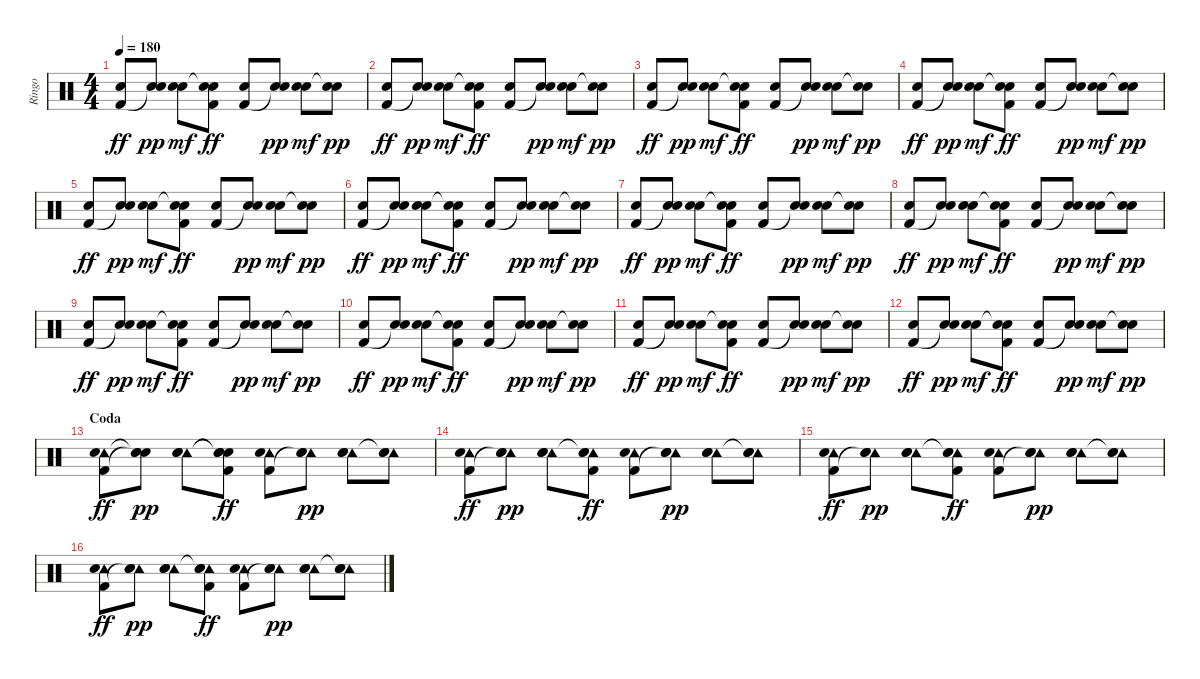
\track ("Ringo" "Ringo") {instrument percussion}
\staff {score}
\articulation defaults
\ts (4 4)
\tempo 180
\clef neutral
\ks c
("Hand Clap (hit)" "Kick (hit) 2").8{dy ff} ("Hand Clap (hit)" "Snare (hit)"{t}).8{dy pp} ("Hand Clap (hit)" "Snare (hit) 2").8{dy mf} ("Hand Clap (hit)" "Snare (hit)"{t} "Kick (hit) 2").8{dy ff} ("Hand Clap (hit)" "Kick (hit) 2").8 ("Hand Clap (hit)" "Snare (hit)"{t}).8{dy pp} ("Hand Clap (hit)" "Snare (hit) 2").8{dy mf} ("Hand Clap (hit)" "Snare (hit)"{t}).8{dy pp} |
("Hand Clap (hit)" "Kick (hit) 2").8{dy ff} ("Hand Clap (hit)" "Snare (hit)"{t}).8{dy pp} ("Hand Clap (hit)" "Snare (hit) 2").8{dy mf} ("Hand Clap (hit)" "Snare (hit)"{t} "Kick (hit) 2").8{dy ff} ("Hand Clap (hit)" "Kick (hit) 2").8 ("Hand Clap (hit)" "Snare (hit)"{t}).8{dy pp} ("Hand Clap (hit)" "Snare (hit) 2").8{dy mf} ("Hand Clap (hit)" "Snare (hit)"{t}).8{dy pp} |
("Hand Clap (hit)" "Kick (hit) 2").8{dy ff} ("Hand Clap (hit)" "Snare (hit)"{t}).8{dy pp} ("Hand Clap (hit)" "Snare (hit) 2").8{dy mf} ("Hand Clap (hit)" "Snare (hit)"{t} "Kick (hit) 2").8{dy ff} ("Hand Clap (hit)" "Kick (hit) 2").8 ("Hand Clap (hit)" "Snare (hit)"{t}).8{dy pp} ("Hand Clap (hit)" "Snare (hit) 2").8{dy mf} ("Hand Clap (hit)" "Snare (hit)"{t}).8{dy pp} |
("Hand Clap (hit)" "Kick (hit) 2").8{dy ff} ("Hand Clap (hit)" "Snare (hit)"{t}).8{dy pp} ("Hand Clap (hit)" "Snare (hit) 2").8{dy mf} ("Hand Clap (hit)" "Snare (hit)"{t} "Kick (hit) 2").8{dy ff} ("Hand Clap (hit)" "Kick (hit) 2").8 ("Hand Clap (hit)" "Snare (hit)"{t}).8{dy pp} ("Hand Clap (hit)" "Snare (hit) 2").8{dy mf} ("Hand Clap (hit)" "Snare (hit)"{t}).8{dy pp} |
("Hand Clap (hit)" "Kick (hit) 2").8{dy ff} ("Hand Clap (hit)" "Snare (hit)"{t}).8{dy pp} ("Hand Clap (hit)" "Snare (hit) 2").8{dy mf} ("Hand Clap (hit)" "Snare (hit)"{t} "Kick (hit) 2").8{dy ff} ("Hand Clap (hit)" "Kick (hit) 2").8 ("Hand Clap (hit)" "Snare (hit)"{t}).8{dy pp} ("Hand Clap (hit)" "Snare (hit) 2").8{dy mf} ("Hand Clap (hit)" "Snare (hit)"{t}).8{dy pp} |
("Hand Clap (hit)" "Kick (hit) 2").8{dy ff} ("Hand Clap (hit)" "Snare (hit)"{t}).8{dy pp} ("Hand Clap (hit)" "Snare (hit) 2").8{dy mf} ("Hand Clap (hit)" "Snare (hit)"{t} "Kick (hit) 2").8{dy ff} ("Hand Clap (hit)" "Kick (hit) 2").8 ("Hand Clap (hit)" "Snare (hit)"{t}).8{dy pp} ("Hand Clap (hit)" "Snare (hit) 2").8{dy mf} ("Hand Clap (hit)" "Snare (hit)"{t}).8{dy pp} |
("Hand Clap (hit)" "Kick (hit) 2").8{dy ff} ("Hand Clap (hit)" "Snare (hit)"{t}).8{dy pp} ("Hand Clap (hit)" "Snare (hit) 2").8{dy mf} ("Hand Clap (hit)" "Snare (hit)"{t} "Kick (hit) 2").8{dy ff} ("Hand Clap (hit)" "Kick (hit) 2").8 ("Hand Clap (hit)" "Snare (hit)"{t}).8{dy pp} ("Hand Clap (hit)" "Snare (hit) 2").8{dy mf} ("Hand Clap (hit)" "Snare (hit)"{t}).8{dy pp} |
("Hand Clap (hit)" "Kick (hit) 2").8{dy ff} ("Hand Clap (hit)" "Snare (hit)"{t}).8{dy pp} ("Hand Clap (hit)" "Snare (hit) 2").8{dy mf} ("Hand Clap (hit)" "Snare (hit)"{t} "Kick (hit) 2").8{dy ff} ("Hand Clap (hit)" "Kick (hit) 2").8 ("Hand Clap (hit)" "Snare (hit)"{t}).8{dy pp} ("Hand Clap (hit)" "Snare (hit) 2").8{dy mf} ("Hand Clap (hit)" "Snare (hit)"{t}).8{dy pp} |
("Hand Clap (hit)" "Kick (hit) 2").8{dy ff} ("Hand Clap (hit)" "Snare (hit)"{t}).8{dy pp} ("Hand Clap (hit)" "Snare (hit) 2").8{dy mf} ("Hand Clap (hit)" "Snare (hit)"{t} "Kick (hit) 2").8{dy ff} ("Hand Clap (hit)" "Kick (hit) 2").8 ("Hand Clap (hit)" "Snare (hit)"{t}).8{dy pp} ("Hand Clap (hit)" "Snare (hit) 2").8{dy mf} ("Hand Clap (hit)" "Snare (hit)"{t}).8{dy pp} |
("Hand Clap (hit)" "Kick (hit) 2").8{dy ff} ("Hand Clap (hit)" "Snare (hit)"{t}).8{dy pp} ("Hand Clap (hit)" "Snare (hit) 2").8{dy mf} ("Hand Clap (hit)" "Snare (hit)"{t} "Kick (hit) 2").8{dy ff} ("Hand Clap (hit)" "Kick (hit) 2").8 ("Hand Clap (hit)" "Snare (hit)"{t}).8{dy pp} ("Hand Clap (hit)" "Snare (hit) 2").8{dy mf} ("Hand Clap (hit)" "Snare (hit)"{t}).8{dy pp} |
("Hand Clap (hit)" "Kick (hit) 2").8{dy ff} ("Hand Clap (hit)" "Snare (hit)"{t}).8{dy pp} ("Hand Clap (hit)" "Snare (hit) 2").8{dy mf} ("Hand Clap (hit)" "Snare (hit)"{t} "Kick (hit) 2").8{dy ff} ("Hand Clap (hit)" "Kick (hit) 2").8 ("Hand Clap (hit)" "Snare (hit)"{t}).8{dy pp} ("Hand Clap (hit)" "Snare (hit) 2").8{dy mf} ("Hand Clap (hit)" "Snare (hit)"{t}).8{dy pp} |
("Hand Clap (hit)" "Kick (hit) 2").8{dy ff} ("Hand Clap (hit)" "Snare (hit)"{t}).8{dy pp} ("Hand Clap (hit)" "Snare (hit) 2").8{dy mf} ("Hand Clap (hit)" "Snare (hit)"{t} "Kick (hit) 2").8{dy ff} ("Hand Clap (hit)" "Kick (hit) 2").8 ("Hand Clap (hit)" "Snare (hit)"{t}).8{dy pp} ("Hand Clap (hit)" "Snare (hit) 2").8{dy mf} ("Hand Clap (hit)" "Snare (hit)"{t}).8{dy pp} |
\section ("" "Coda")
("Tambourine (hit)" "Hand Clap (hit)" "Kick (hit) 2").8{dy ff} ("Snare (hit)"{t} "Hand Clap (hit)" "Snare (hit)"{t}).8{dy pp} ("Tambourine (hit)" "Hand Clap (hit)" "Snare (hit) 2").8 ("Snare (hit)"{t} "Hand Clap (hit)" "Snare (hit)"{t} "Kick (hit) 2").8{dy ff} ("Tambourine (hit)" "Hand Clap (hit)" "Kick (hit) 2").8 ("Tambourine (hit)" "Hand Clap (hit)" "Snare (hit)"{t}).8{dy pp} ("Tambourine (hit)" "Hand Clap (hit)" "Snare (hit) 2").8 ("Tambourine (hit)" "Hand Clap (hit)" "Snare (hit)"{t}).8 |
("Tambourine (hit)" "Hand Clap (hit)" "Kick (hit) 2").8{dy ff} ("Tambourine (hit)" "Hand Clap (hit)" "Snare (hit)"{t}).8{dy pp} ("Tambourine (hit)" "Hand Clap (hit)" "Snare (hit) 2").8 ("Tambourine (hit)" "Hand Clap (hit)" "Snare (hit)"{t} "Kick (hit) 2").8{dy ff} ("Tambourine (hit)" "Hand Clap (hit)" "Kick (hit) 2").8 ("Tambourine (hit)" "Hand Clap (hit)" "Snare (hit)"{t}).8{dy pp} ("Tambourine (hit)" "Hand Clap (hit)" "Snare (hit) 2").8 ("Tambourine (hit)" "Hand Clap (hit)" "Snare (hit)"{t}).8 |
("Tambourine (hit)" "Hand Clap (hit)" "Kick (hit) 2").8{dy ff} ("Tambourine (hit)" "Hand Clap (hit)" "Snare (hit)"{t}).8{dy pp} ("Tambourine (hit)" "Hand Clap (hit)" "Snare (hit) 2").8 ("Tambourine (hit)" "Hand Clap (hit)" "Snare (hit)"{t} "Kick (hit) 2").8{dy ff} ("Tambourine (hit)" "Hand Clap (hit)" "Kick (hit) 2").8 ("Tambourine (hit)" "Hand Clap (hit)" "Snare (hit)"{t}).8{dy pp} ("Tambourine (hit)" "Hand Clap (hit)" "Snare (hit) 2").8 ("Tambourine (hit)" "Hand Clap (hit)" "Snare (hit)"{t}).8 |
("Tambourine (hit)" "Hand Clap (hit)" "Kick (hit) 2").8{dy ff} ("Tambourine (hit)" "Hand Clap (hit)" "Snare (hit)"{t}).8{dy pp} ("Tambourine (hit)" "Hand Clap (hit)" "Snare (hit) 2").8 ("Tambourine (hit)" "Hand Clap (hit)" "Snare (hit)"{t} "Kick (hit) 2").8{dy ff} ("Tambourine (hit)" "Hand Clap (hit)" "Kick (hit) 2").8 ("Tambourine (hit)" "Hand Clap (hit)" "Snare (hit)"{t}).8{dy pp} ("Tambourine (hit)" "Hand Clap (hit)" "Snare (hit) 2").8 ("Tambourine (hit)" "Hand Clap (hit)" "Snare (hit)"{t}).8
